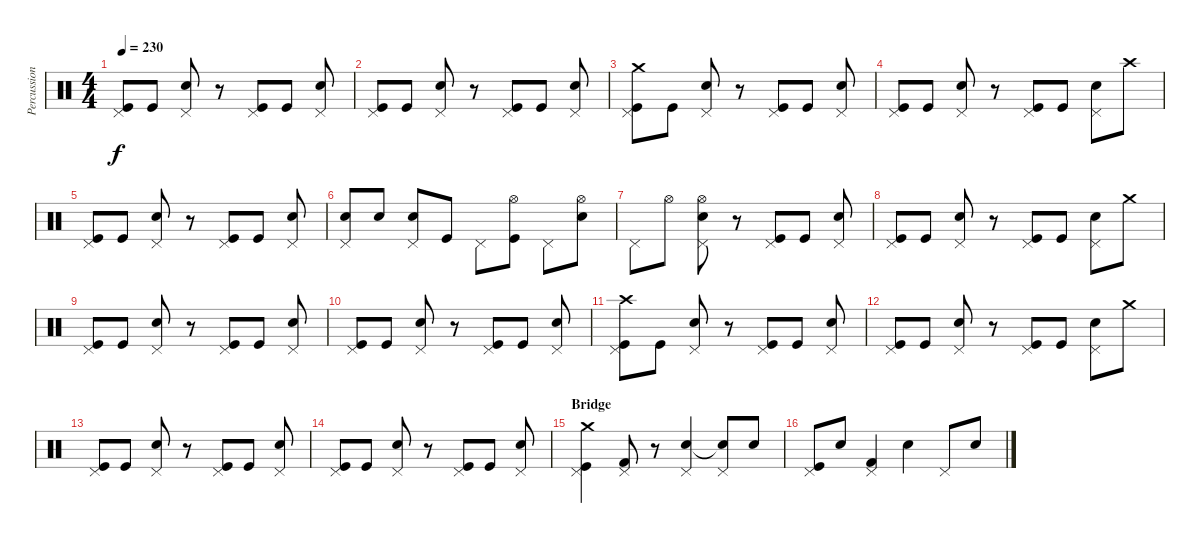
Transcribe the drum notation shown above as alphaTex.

\track ("Percussion" "Percussion") {instrument percussion}
\staff {score}
\articulation defaults
\ts (4 4)
\tempo 230
\clef neutral
\ks c
("Pedal Hi-Hat (hit)" "Kick (hit)").8{dy f} "Kick (hit)".8 ("Pedal Hi-Hat (hit)" "Electric Snare (hit)").8 r.8 ("Pedal Hi-Hat (hit)" "Kick (hit)").8 "Kick (hit)".8 ("Pedal Hi-Hat (hit)" "Electric Snare (hit)").8 |
("Pedal Hi-Hat (hit)" "Kick (hit)").8 "Kick (hit)".8 ("Pedal Hi-Hat (hit)" "Electric Snare (hit)").8 r.8 ("Pedal Hi-Hat (hit)" "Kick (hit)").8 "Kick (hit)".8 ("Pedal Hi-Hat (hit)" "Electric Snare (hit)").8 |
("Pedal Hi-Hat (hit)" "Crash medium (hit)" "Kick (hit)").8 "Kick (hit)".8 ("Pedal Hi-Hat (hit)" "Electric Snare (hit)").8 r.8 ("Pedal Hi-Hat (hit)" "Kick (hit)").8 "Kick (hit)".8 ("Pedal Hi-Hat (hit)" "Electric Snare (hit)").8 |
("Pedal Hi-Hat (hit)" "Kick (hit)").8 "Kick (hit)".8 ("Pedal Hi-Hat (hit)" "Electric Snare (hit)").8 r.8 ("Pedal Hi-Hat (hit)" "Kick (hit)").8 "Kick (hit)".8 ("Pedal Hi-Hat (hit)" "Electric Snare (hit)").8 "Crash high (hit)".8 |
("Pedal Hi-Hat (hit)" "Kick (hit)").8 "Kick (hit)".8 ("Pedal Hi-Hat (hit)" "Electric Snare (hit)").8 r.8 ("Pedal Hi-Hat (hit)" "Kick (hit)").8 "Kick (hit)".8 ("Pedal Hi-Hat (hit)" "Electric Snare (hit)").8 |
("Pedal Hi-Hat (hit)" "Snare (hit) 2").8 "Snare (hit) 2".8 ("Pedal Hi-Hat (hit)" "Snare (hit) 2").8 "Kick (hit)".8 "Pedal Hi-Hat (hit)".8 ("Hi-Hat (open)" "Kick (hit)").8 "Pedal Hi-Hat (hit)".8 ("Hi-Hat (open)" "Electric Snare (hit)").8 |
"Pedal Hi-Hat (hit)".8 "Hi-Hat (open)".8 ("Pedal Hi-Hat (hit)" "Hi-Hat (open)" "Electric Snare (hit)").8 r.8 ("Pedal Hi-Hat (hit)" "Kick (hit)").8 "Kick (hit)".8 ("Pedal Hi-Hat (hit)" "Electric Snare (hit)").8 |
("Pedal Hi-Hat (hit)" "Kick (hit)").8 "Kick (hit)".8 ("Pedal Hi-Hat (hit)" "Electric Snare (hit)").8 r.8 ("Pedal Hi-Hat (hit)" "Kick (hit)").8 "Kick (hit)".8 ("Pedal Hi-Hat (hit)" "Electric Snare (hit)").8 "Crash medium (hit)".8 |
("Pedal Hi-Hat (hit)" "Kick (hit)").8 "Kick (hit)".8 ("Pedal Hi-Hat (hit)" "Electric Snare (hit)").8 r.8 ("Pedal Hi-Hat (hit)" "Kick (hit)").8 "Kick (hit)".8 ("Pedal Hi-Hat (hit)" "Electric Snare (hit)").8 |
("Pedal Hi-Hat (hit)" "Kick (hit)").8 "Kick (hit)".8 ("Pedal Hi-Hat (hit)" "Electric Snare (hit)").8 r.8 ("Pedal Hi-Hat (hit)" "Kick (hit)").8 "Kick (hit)".8 ("Pedal Hi-Hat (hit)" "Electric Snare (hit)").8 |
("Pedal Hi-Hat (hit)" "Crash high (hit)" "Kick (hit)").8 "Kick (hit)".8 ("Pedal Hi-Hat (hit)" "Electric Snare (hit)").8 r.8 ("Pedal Hi-Hat (hit)" "Kick (hit)").8 "Kick (hit)".8 ("Pedal Hi-Hat (hit)" "Electric Snare (hit)").8 |
("Pedal Hi-Hat (hit)" "Kick (hit)").8 "Kick (hit)".8 ("Pedal Hi-Hat (hit)" "Electric Snare (hit)").8 r.8 ("Pedal Hi-Hat (hit)" "Kick (hit)").8 "Kick (hit)".8 ("Pedal Hi-Hat (hit)" "Electric Snare (hit)").8 "Crash medium (hit)".8 |
("Pedal Hi-Hat (hit)" "Kick (hit)").8 "Kick (hit)".8 ("Pedal Hi-Hat (hit)" "Electric Snare (hit)").8 r.8 ("Pedal Hi-Hat (hit)" "Kick (hit)").8 "Kick (hit)".8 ("Pedal Hi-Hat (hit)" "Electric Snare (hit)").8 |
("Pedal Hi-Hat (hit)" "Kick (hit)").8 "Kick (hit)".8 ("Pedal Hi-Hat (hit)" "Electric Snare (hit)").8 r.8 ("Pedal Hi-Hat (hit)" "Kick (hit)").8 "Kick (hit)".8 ("Pedal Hi-Hat (hit)" "Electric Snare (hit)").8 |
\section ("" "Bridge")
("Crash medium (hit)" "Pedal Hi-Hat (hit)" "Kick (hit)").4 ("Pedal Hi-Hat (hit)" "Kick (hit) 2").8 r.8 ("Pedal Hi-Hat (hit)" "Electric Snare (hit)").4 ("Pedal Hi-Hat (hit)" "Electric Snare (hit)"{t}).8 "Electric Snare (hit)".8 |
("Pedal Hi-Hat (hit)" "Kick (hit)").8 "Snare (hit) 2".8 ("Pedal Hi-Hat (hit)" "Kick (hit) 2").4 "Electric Snare (hit)".4 "Pedal Hi-Hat (hit)".8 "Snare (hit) 2".8
